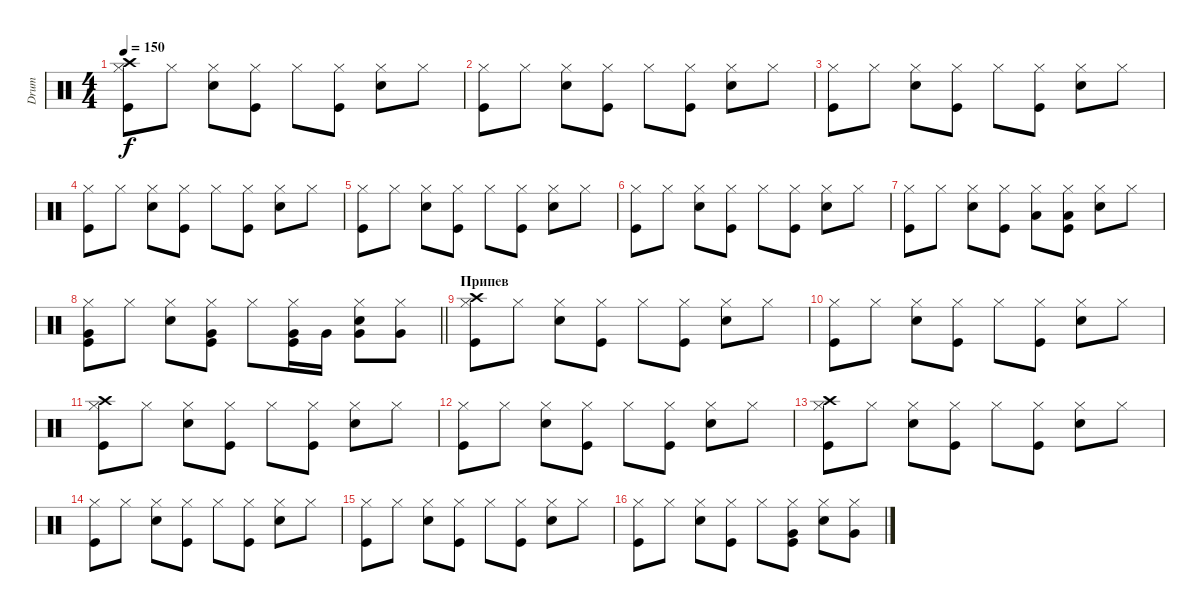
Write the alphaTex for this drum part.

\track ("Drum" "Drum") {instrument percussion}
\staff {score}
\articulation defaults
\ts (4 4)
\tempo 150
\clef neutral
\ks c
("Kick (hit)" "Hi-Hat (closed)" "Crash high (hit)").8{dy f} "Hi-Hat (closed)".8 ("Snare (hit) 2" "Hi-Hat (closed)").8 ("Kick (hit)" "Hi-Hat (closed)").8 "Hi-Hat (closed)".8 ("Kick (hit)" "Hi-Hat (closed)").8 ("Snare (hit) 2" "Hi-Hat (closed)").8 "Hi-Hat (closed)".8 |
("Kick (hit)" "Hi-Hat (closed)").8 "Hi-Hat (closed)".8 ("Snare (hit) 2" "Hi-Hat (closed)").8 ("Kick (hit)" "Hi-Hat (closed)").8 "Hi-Hat (closed)".8 ("Kick (hit)" "Hi-Hat (closed)").8 ("Snare (hit) 2" "Hi-Hat (closed)").8 "Hi-Hat (closed)".8 |
("Kick (hit)" "Hi-Hat (closed)").8 "Hi-Hat (closed)".8 ("Snare (hit) 2" "Hi-Hat (closed)").8 ("Kick (hit)" "Hi-Hat (closed)").8 "Hi-Hat (closed)".8 ("Kick (hit)" "Hi-Hat (closed)").8 ("Snare (hit) 2" "Hi-Hat (closed)").8 "Hi-Hat (closed)".8 |
("Kick (hit)" "Hi-Hat (closed)").8 "Hi-Hat (closed)".8 ("Snare (hit) 2" "Hi-Hat (closed)").8 ("Kick (hit)" "Hi-Hat (closed)").8 "Hi-Hat (closed)".8 ("Kick (hit)" "Hi-Hat (closed)").8 ("Snare (hit) 2" "Hi-Hat (closed)").8 "Hi-Hat (closed)".8 |
("Kick (hit)" "Hi-Hat (closed)").8 "Hi-Hat (closed)".8 ("Snare (hit) 2" "Hi-Hat (closed)").8 ("Kick (hit)" "Hi-Hat (closed)").8 "Hi-Hat (closed)".8 ("Kick (hit)" "Hi-Hat (closed)").8 ("Snare (hit) 2" "Hi-Hat (closed)").8 "Hi-Hat (closed)".8 |
("Kick (hit)" "Hi-Hat (closed)").8 "Hi-Hat (closed)".8 ("Snare (hit) 2" "Hi-Hat (closed)").8 ("Kick (hit)" "Hi-Hat (closed)").8 "Hi-Hat (closed)".8 ("Kick (hit)" "Hi-Hat (closed)").8 ("Snare (hit) 2" "Hi-Hat (closed)").8 "Hi-Hat (closed)".8 |
("Kick (hit)" "Hi-Hat (closed)").8 "Hi-Hat (closed)".8 ("Snare (hit) 2" "Hi-Hat (closed)").8 ("Kick (hit)" "Hi-Hat (closed)").8 ("Hi-Hat (closed)" "Low Tom (hit)").8 ("Kick (hit)" "Hi-Hat (closed)" "Low Tom (hit)").8 ("Snare (hit) 2" "Hi-Hat (closed)").8 "Hi-Hat (closed)".8 |
\barLineRight lightlight
("Kick (hit)" "Hi-Hat (closed)" "Very Low Tom (hit)").8 "Hi-Hat (closed)".8 ("Snare (hit) 2" "Hi-Hat (closed)").8 ("Kick (hit)" "Hi-Hat (closed)" "Very Low Tom (hit)").8 "Hi-Hat (closed)".8 ("Kick (hit)" "Hi-Hat (closed)" "Very Low Tom (hit)").16 "Very Low Tom (hit)".16 ("Snare (hit) 2" "Hi-Hat (closed)" "Very Low Tom (hit)").8 ("Hi-Hat (closed)" "Very Low Tom (hit)").8 |
\section ("" "Припев")
("Kick (hit)" "Hi-Hat (closed)" "Crash high (hit)").8 "Hi-Hat (closed)".8 ("Snare (hit) 2" "Hi-Hat (closed)").8 ("Kick (hit)" "Hi-Hat (closed)").8 "Hi-Hat (closed)".8 ("Kick (hit)" "Hi-Hat (closed)").8 ("Snare (hit) 2" "Hi-Hat (closed)").8 "Hi-Hat (closed)".8 |
("Kick (hit)" "Hi-Hat (closed)").8 "Hi-Hat (closed)".8 ("Snare (hit) 2" "Hi-Hat (closed)").8 ("Kick (hit)" "Hi-Hat (closed)").8 "Hi-Hat (closed)".8 ("Kick (hit)" "Hi-Hat (closed)").8 ("Snare (hit) 2" "Hi-Hat (closed)").8 "Hi-Hat (closed)".8 |
("Kick (hit)" "Hi-Hat (closed)" "Crash high (hit)").8 "Hi-Hat (closed)".8 ("Snare (hit) 2" "Hi-Hat (closed)").8 ("Kick (hit)" "Hi-Hat (closed)").8 "Hi-Hat (closed)".8 ("Kick (hit)" "Hi-Hat (closed)").8 ("Snare (hit) 2" "Hi-Hat (closed)").8 "Hi-Hat (closed)".8 |
("Kick (hit)" "Hi-Hat (closed)").8 "Hi-Hat (closed)".8 ("Snare (hit) 2" "Hi-Hat (closed)").8 ("Kick (hit)" "Hi-Hat (closed)").8 "Hi-Hat (closed)".8 ("Kick (hit)" "Hi-Hat (closed)").8 ("Snare (hit) 2" "Hi-Hat (closed)").8 "Hi-Hat (closed)".8 |
("Kick (hit)" "Hi-Hat (closed)" "Crash high (hit)").8 "Hi-Hat (closed)".8 ("Snare (hit) 2" "Hi-Hat (closed)").8 ("Kick (hit)" "Hi-Hat (closed)").8 "Hi-Hat (closed)".8 ("Kick (hit)" "Hi-Hat (closed)").8 ("Snare (hit) 2" "Hi-Hat (closed)").8 "Hi-Hat (closed)".8 |
("Kick (hit)" "Hi-Hat (closed)").8 "Hi-Hat (closed)".8 ("Snare (hit) 2" "Hi-Hat (closed)").8 ("Kick (hit)" "Hi-Hat (closed)").8 "Hi-Hat (closed)".8 ("Kick (hit)" "Hi-Hat (closed)").8 ("Snare (hit) 2" "Hi-Hat (closed)").8 "Hi-Hat (closed)".8 |
("Kick (hit)" "Hi-Hat (closed)").8 "Hi-Hat (closed)".8 ("Snare (hit) 2" "Hi-Hat (closed)").8 ("Kick (hit)" "Hi-Hat (closed)").8 "Hi-Hat (closed)".8 ("Kick (hit)" "Hi-Hat (closed)").8 ("Snare (hit) 2" "Hi-Hat (closed)").8 "Hi-Hat (closed)".8 |
("Kick (hit)" "Hi-Hat (closed)").8 "Hi-Hat (closed)".8 ("Snare (hit) 2" "Hi-Hat (closed)").8 ("Kick (hit)" "Hi-Hat (closed)").8 "Hi-Hat (closed)".8 ("Kick (hit)" "Hi-Hat (closed)" "Very Low Tom (hit)").8 ("Snare (hit) 2" "Hi-Hat (closed)").8 ("Hi-Hat (closed)" "Very Low Tom (hit)").8
